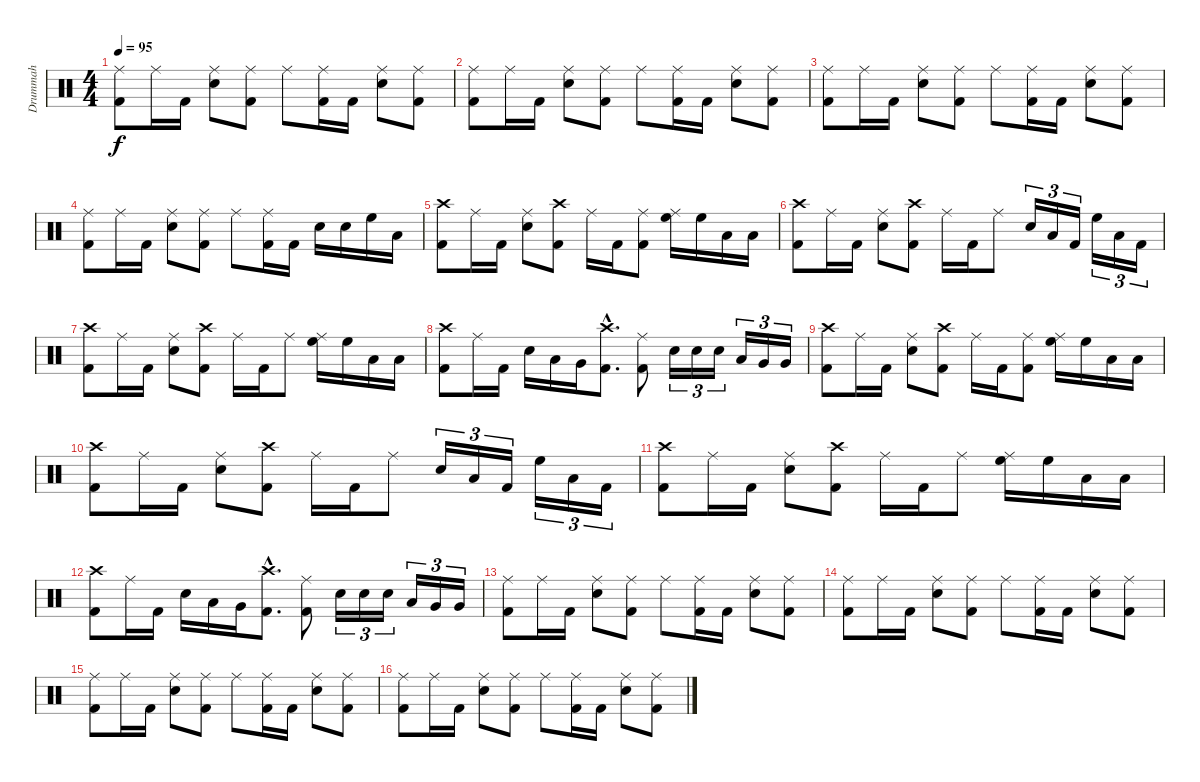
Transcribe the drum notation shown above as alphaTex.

\track ("Drummah" "Drummah") {instrument percussion}
\staff {score}
\articulation defaults
\ts (4 4)
\tempo 95
\clef neutral
\ks c
("Ride (middle)" "Kick (hit) 2").8{dy f} "Ride (middle)".16 "Kick (hit) 2".16 ("Ride (middle)" "Snare (hit) 2").8 ("Ride (middle)" "Kick (hit) 2").8 "Ride (middle)".8 ("Ride (middle)" "Kick (hit) 2").16 "Kick (hit) 2".16 ("Ride (middle)" "Snare (hit) 2").8 ("Ride (middle)" "Kick (hit) 2").8 |
("Ride (middle)" "Kick (hit) 2").8 "Ride (middle)".16 "Kick (hit) 2".16 ("Ride (middle)" "Snare (hit) 2").8 ("Ride (middle)" "Kick (hit) 2").8 "Ride (middle)".8 ("Ride (middle)" "Kick (hit) 2").16 "Kick (hit) 2".16 ("Ride (middle)" "Snare (hit) 2").8 ("Ride (middle)" "Kick (hit) 2").8 |
("Ride (middle)" "Kick (hit) 2").8 "Ride (middle)".16 "Kick (hit) 2".16 ("Ride (middle)" "Snare (hit) 2").8 ("Ride (middle)" "Kick (hit) 2").8 "Ride (middle)".8 ("Ride (middle)" "Kick (hit) 2").16 "Kick (hit) 2".16 ("Ride (middle)" "Snare (hit) 2").8 ("Ride (middle)" "Kick (hit) 2").8 |
("Ride (middle)" "Kick (hit) 2").8 "Ride (middle)".16 "Kick (hit) 2".16 ("Ride (middle)" "Snare (hit) 2").8 ("Ride (middle)" "Kick (hit) 2").8 "Ride (middle)".8 ("Ride (middle)" "Kick (hit) 2").16 "Kick (hit) 2".16 "Snare (hit) 2".16 "Snare (hit) 2".16 "High Floor Tom (hit)".16 "Low Tom (hit)".16 |
("Crash high (hit)" "Kick (hit) 2").8 "Ride (middle)".16 "Kick (hit) 2".16 ("Ride (middle)" "Snare (hit) 2").8 ("Crash high (hit)" "Kick (hit) 2").8 "Ride (middle)".16 "Kick (hit) 2".16 ("Ride (middle)" "Kick (hit) 2").8 ("Ride (middle)" "High Floor Tom (hit)").16 "High Floor Tom (hit)".16 "Low Tom (hit)".16 "Low Tom (hit)".16 |
("Crash high (hit)" "Kick (hit) 2").8 "Ride (middle)".16 "Kick (hit) 2".16 ("Ride (middle)" "Snare (hit) 2").8 ("Crash high (hit)" "Kick (hit) 2").8 "Ride (middle)".16 "Kick (hit) 2".16 "Ride (middle)".8 "Snare (hit) 2".16{tu (3 2)} "Low Tom (hit)".16{tu (3 2)} "Kick (hit) 2".16{tu (3 2)} "High Floor Tom (hit)".16{tu (3 2)} "Low Tom (hit)".16{tu (3 2)} "Kick (hit) 2".16{tu (3 2)} |
("Crash high (hit)" "Kick (hit) 2").8 "Ride (middle)".16 "Kick (hit) 2".16 ("Ride (middle)" "Snare (hit) 2").8 ("Crash high (hit)" "Kick (hit) 2").8 "Ride (middle)".16 "Kick (hit) 2".16 "Ride (middle)".8 ("Ride (middle)" "High Floor Tom (hit)").16 "High Floor Tom (hit)".16 "Low Tom (hit)".16 "Low Tom (hit)".16 |
("Crash high (hit)" "Kick (hit) 2").8 "Ride (middle)".16 "Kick (hit) 2".16 "Snare (hit) 2".16 "Low Tom (hit)".16 "Very Low Tom (hit)".16 ("Crash high (hit)"{hac} "Kick (hit) 2"{hac}).8{d} ("Ride (middle)" "Kick (hit) 2").8 "Snare (hit) 2".16{tu (3 2)} "Snare (hit) 2".16{tu (3 2)} "Snare (hit) 2".16{tu (3 2)} "Low Tom (hit)".16{tu (3 2)} "Very Low Tom (hit)".16{tu (3 2)} "Very Low Tom (hit)".16{tu (3 2)} |
("Crash high (hit)" "Kick (hit) 2").8 "Ride (middle)".16 "Kick (hit) 2".16 ("Ride (middle)" "Snare (hit) 2").8 ("Crash high (hit)" "Kick (hit) 2").8 "Ride (middle)".16 "Kick (hit) 2".16 ("Ride (middle)" "Kick (hit) 2").8 ("Ride (middle)" "High Floor Tom (hit)").16 "High Floor Tom (hit)".16 "Low Tom (hit)".16 "Low Tom (hit)".16 |
("Crash high (hit)" "Kick (hit) 2").8 "Ride (middle)".16 "Kick (hit) 2".16 ("Ride (middle)" "Snare (hit) 2").8 ("Crash high (hit)" "Kick (hit) 2").8 "Ride (middle)".16 "Kick (hit) 2".16 "Ride (middle)".8 "Snare (hit) 2".16{tu (3 2)} "Low Tom (hit)".16{tu (3 2)} "Kick (hit) 2".16{tu (3 2)} "High Floor Tom (hit)".16{tu (3 2)} "Low Tom (hit)".16{tu (3 2)} "Kick (hit) 2".16{tu (3 2)} |
("Crash high (hit)" "Kick (hit) 2").8 "Ride (middle)".16 "Kick (hit) 2".16 ("Ride (middle)" "Snare (hit) 2").8 ("Crash high (hit)" "Kick (hit) 2").8 "Ride (middle)".16 "Kick (hit) 2".16 "Ride (middle)".8 ("Ride (middle)" "High Floor Tom (hit)").16 "High Floor Tom (hit)".16 "Low Tom (hit)".16 "Low Tom (hit)".16 |
("Crash high (hit)" "Kick (hit) 2").8 "Ride (middle)".16 "Kick (hit) 2".16 "Snare (hit) 2".16 "Low Tom (hit)".16 "Very Low Tom (hit)".16 ("Crash high (hit)"{hac} "Kick (hit) 2"{hac}).8{d} ("Ride (middle)" "Kick (hit) 2").8 "Snare (hit) 2".16{tu (3 2)} "Snare (hit) 2".16{tu (3 2)} "Snare (hit) 2".16{tu (3 2)} "Low Tom (hit)".16{tu (3 2)} "Very Low Tom (hit)".16{tu (3 2)} "Very Low Tom (hit)".16{tu (3 2)} |
("Ride (middle)" "Kick (hit) 2").8 "Ride (middle)".16 "Kick (hit) 2".16 ("Ride (middle)" "Snare (hit) 2").8 ("Ride (middle)" "Kick (hit) 2").8 "Ride (middle)".8 ("Ride (middle)" "Kick (hit) 2").16 "Kick (hit) 2".16 ("Ride (middle)" "Snare (hit) 2").8 ("Ride (middle)" "Kick (hit) 2").8 |
("Ride (middle)" "Kick (hit) 2").8 "Ride (middle)".16 "Kick (hit) 2".16 ("Ride (middle)" "Snare (hit) 2").8 ("Ride (middle)" "Kick (hit) 2").8 "Ride (middle)".8 ("Ride (middle)" "Kick (hit) 2").16 "Kick (hit) 2".16 ("Ride (middle)" "Snare (hit) 2").8 ("Ride (middle)" "Kick (hit) 2").8 |
("Ride (middle)" "Kick (hit) 2").8 "Ride (middle)".16 "Kick (hit) 2".16 ("Ride (middle)" "Snare (hit) 2").8 ("Ride (middle)" "Kick (hit) 2").8 "Ride (middle)".8 ("Ride (middle)" "Kick (hit) 2").16 "Kick (hit) 2".16 ("Ride (middle)" "Snare (hit) 2").8 ("Ride (middle)" "Kick (hit) 2").8 |
("Ride (middle)" "Kick (hit) 2").8 "Ride (middle)".16 "Kick (hit) 2".16 ("Ride (middle)" "Snare (hit) 2").8 ("Ride (middle)" "Kick (hit) 2").8 "Ride (middle)".8 ("Ride (middle)" "Kick (hit) 2").16 "Kick (hit) 2".16 ("Ride (middle)" "Snare (hit) 2").8 ("Ride (middle)" "Kick (hit) 2").8
